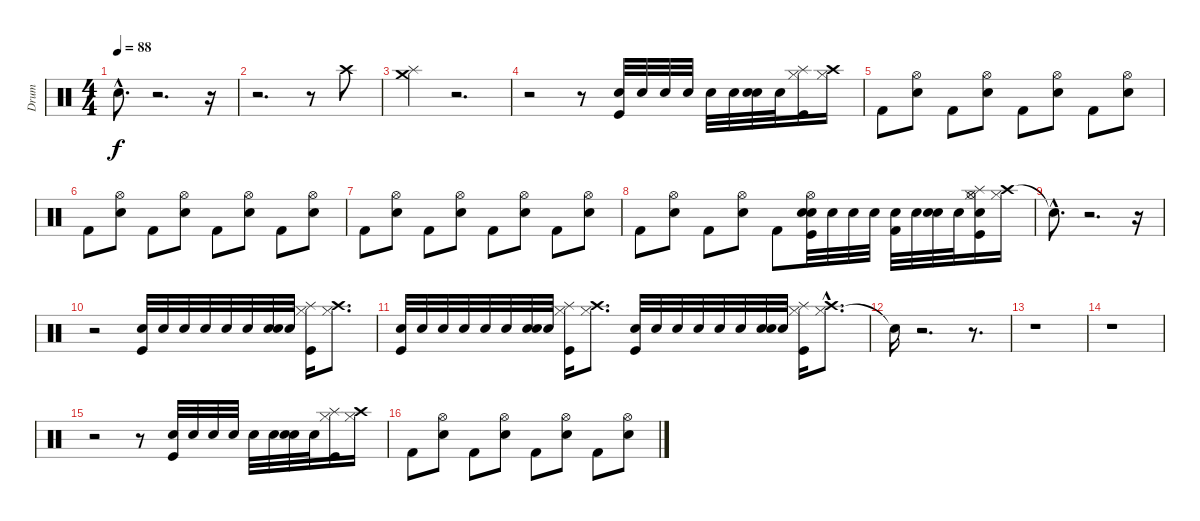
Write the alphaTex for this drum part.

\track ("Drum" "Drum") {instrument percussion}
\staff {score}
\articulation defaults
\ts (4 4)
\tempo 88
\clef neutral
\ks c "Snare (hit)"{hac t}.8{d dy f}
r.2{d} r.16 |
r.2{d} r.8 "Crash high (hit)".8 |
("Crash medium (hit)" "Splash (hit)").4 r.2{d} |
r.2 r.8 ("Kick (hit)" "Snare (hit) 2").32 "Snare (hit) 2".32 "Snare (hit) 2".32 "Snare (hit) 2".32 "Snare (hit) 2".32 "Snare (hit) 2".32 ("Electric Snare (hit)" "Snare (hit) 2").32 "Snare (hit) 2".32 ("Kick (hit)" "Splash (hit)" "Hi-Hat (closed)").16 ("Hi-Hat (closed)" "Crash high (hit)").16 |
"Kick (hit) 2".8 ("Hi-Hat (open)" "Snare (hit) 2").8 "Kick (hit) 2".8 ("Hi-Hat (open)" "Snare (hit) 2").8 "Kick (hit) 2".8 ("Snare (hit) 2" "Hi-Hat (open)").8 "Kick (hit) 2".8 ("Hi-Hat (open)" "Snare (hit) 2").8 |
"Kick (hit) 2".8 ("Snare (hit) 2" "Hi-Hat (open)").8 "Kick (hit) 2".8 ("Snare (hit) 2" "Hi-Hat (open)").8 "Kick (hit) 2".8 ("Snare (hit) 2" "Hi-Hat (open)").8 "Kick (hit) 2".8 ("Hi-Hat (open)" "Snare (hit) 2").8 |
"Kick (hit) 2".8 ("Hi-Hat (open)" "Snare (hit) 2").8 "Kick (hit) 2".8 ("Hi-Hat (open)" "Snare (hit) 2").8 "Kick (hit) 2".8 ("Snare (hit) 2" "Hi-Hat (open)").8 "Kick (hit) 2".8 ("Hi-Hat (open)" "Snare (hit) 2").8 |
"Kick (hit) 2".8 ("Hi-Hat (open)" "Snare (hit) 2").8 "Kick (hit) 2".8 ("Hi-Hat (open)" "Snare (hit) 2").8 "Kick (hit) 2".8 ("Snare (hit) 2" "Kick (hit)" "Hi-Hat (open)" "Snare (hit) 2").32 "Snare (hit) 2".32 "Snare (hit) 2".32 "Snare (hit) 2".32 ("Kick (hit) 2" "Snare (hit) 2").32 "Snare (hit) 2".32 ("Snare (hit) 2" "Electric Snare (hit)").32 "Snare (hit) 2".32 ("Splash (hit)" "Hi-Hat (open)" "Kick (hit)" "Snare (hit) 2" "Hi-Hat (closed)").16 ("Crash high (hit)" "Hi-Hat (closed)").16 |
"Snare (hit)"{hac t}.8{d} r.2{d} r.16 |
r.2 ("Snare (hit) 2" "Kick (hit)").32 "Snare (hit) 2".32 "Snare (hit) 2".32 "Snare (hit) 2".32 "Snare (hit) 2".32 "Snare (hit) 2".32 ("Snare (hit) 2" "Electric Snare (hit)").32 "Snare (hit) 2".32 ("Splash (hit)" "Kick (hit)" "Hi-Hat (closed)").16 ("Hi-Hat (closed)" "Crash high (hit)").8{d} |
("Snare (hit) 2" "Kick (hit)").32 "Snare (hit) 2".32 "Snare (hit) 2".32 "Snare (hit) 2".32 "Snare (hit) 2".32 "Snare (hit) 2".32 ("Snare (hit) 2" "Electric Snare (hit)").32 "Snare (hit) 2".32 ("Splash (hit)" "Kick (hit)" "Hi-Hat (closed)").16 ("Hi-Hat (closed)" "Crash high (hit)").8{d} ("Snare (hit) 2" "Kick (hit)").32 "Snare (hit) 2".32 "Snare (hit) 2".32 "Snare (hit) 2".32 "Snare (hit) 2".32 "Snare (hit) 2".32 ("Snare (hit) 2" "Electric Snare (hit)").32 "Snare (hit) 2".32 ("Splash (hit)" "Kick (hit)" "Hi-Hat (closed)").16 ("Hi-Hat (closed)" "Crash high (hit)"{hac}).8{d} |
"Snare (hit)"{t}.16 r.2{d} r.8{d} |
r.1 |
r.1 |
r.2 r.8 ("Kick (hit)" "Snare (hit) 2").32 "Snare (hit) 2".32 "Snare (hit) 2".32 "Snare (hit) 2".32 "Snare (hit) 2".32 "Snare (hit) 2".32 ("Electric Snare (hit)" "Snare (hit) 2").32 "Snare (hit) 2".32 ("Kick (hit)" "Splash (hit)" "Hi-Hat (closed)").16 ("Hi-Hat (closed)" "Crash high (hit)").16 |
"Kick (hit) 2".8 ("Hi-Hat (open)" "Snare (hit) 2").8 "Kick (hit) 2".8 ("Hi-Hat (open)" "Snare (hit) 2").8 "Kick (hit) 2".8 ("Snare (hit) 2" "Hi-Hat (open)").8 "Kick (hit) 2".8 ("Hi-Hat (open)" "Snare (hit) 2").8
